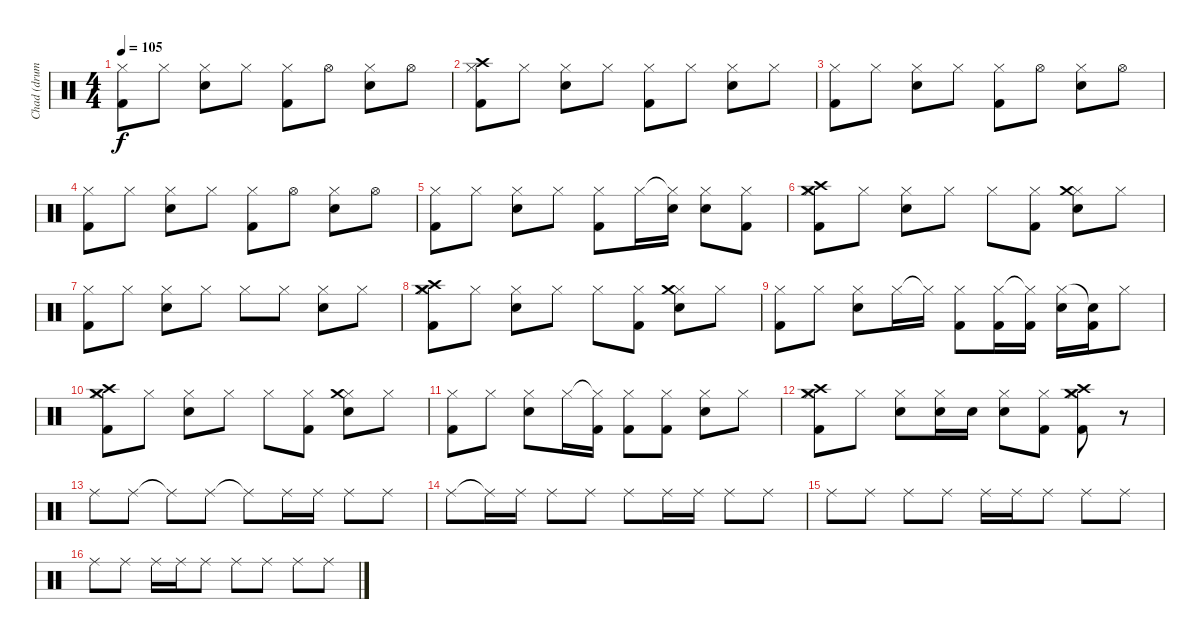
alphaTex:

\track ("Chad (drums)" "Chad (drum") {instrument percussion}
\staff {score}
\articulation defaults
\ts (4 4)
\tempo 105
\clef neutral
\ks c
("Hi-Hat (closed)" "Kick (hit) 2").8{dy f} "Hi-Hat (closed)".8 ("Hi-Hat (closed)" "Electric Snare (hit)").8 "Hi-Hat (closed)".8 ("Hi-Hat (closed)" "Kick (hit) 2").8 "Hi-Hat (open)".8 ("Hi-Hat (closed)" "Electric Snare (hit)").8 "Hi-Hat (open)".8 |
("Hi-Hat (closed)" "Kick (hit) 2" "Crash high (hit)").8 "Hi-Hat (closed)".8 ("Hi-Hat (closed)" "Electric Snare (hit)").8 "Hi-Hat (closed)".8 ("Hi-Hat (closed)" "Kick (hit) 2").8 "Hi-Hat (closed)".8 ("Hi-Hat (closed)" "Electric Snare (hit)").8 "Hi-Hat (closed)".8 |
("Hi-Hat (closed)" "Kick (hit) 2").8 "Hi-Hat (closed)".8 ("Hi-Hat (closed)" "Electric Snare (hit)").8 "Hi-Hat (closed)".8 ("Hi-Hat (closed)" "Kick (hit) 2").8 "Hi-Hat (open)".8 ("Hi-Hat (closed)" "Electric Snare (hit)").8 "Hi-Hat (open)".8 |
("Hi-Hat (closed)" "Kick (hit) 2").8 "Hi-Hat (closed)".8 ("Hi-Hat (closed)" "Electric Snare (hit)").8 "Hi-Hat (closed)".8 ("Hi-Hat (closed)" "Kick (hit) 2").8 "Hi-Hat (open)".8 ("Hi-Hat (closed)" "Electric Snare (hit)").8 "Hi-Hat (open)".8 |
("Hi-Hat (closed)" "Kick (hit) 2").8 "Hi-Hat (closed)".8 ("Hi-Hat (closed)" "Electric Snare (hit)").8 "Hi-Hat (closed)".8 ("Hi-Hat (closed)" "Kick (hit) 2").8 "Hi-Hat (closed)".16 ("Hi-Hat (closed)"{t} "Electric Snare (hit)").16 ("Hi-Hat (closed)" "Electric Snare (hit)").8 ("Hi-Hat (closed)" "Kick (hit) 2").8 |
("Hi-Hat (closed)" "Kick (hit) 2" "Crash high (hit)" "Crash medium (hit)").8 "Hi-Hat (closed)".8 ("Hi-Hat (closed)" "Electric Snare (hit)").8 "Hi-Hat (closed)".8 "Hi-Hat (closed)".8 ("Hi-Hat (closed)" "Kick (hit) 2").8 ("Hi-Hat (closed)" "Electric Snare (hit)" "Crash medium (hit)").8 "Hi-Hat (closed)".8 |
("Hi-Hat (closed)" "Kick (hit) 2").8 "Hi-Hat (closed)".8 ("Hi-Hat (closed)" "Electric Snare (hit)").8 "Hi-Hat (closed)".8 "Hi-Hat (closed)".8 "Hi-Hat (closed)".8 ("Hi-Hat (closed)" "Electric Snare (hit)").8 "Hi-Hat (closed)".8 |
("Hi-Hat (closed)" "Kick (hit) 2" "Crash high (hit)" "Crash medium (hit)").8 "Hi-Hat (closed)".8 ("Hi-Hat (closed)" "Electric Snare (hit)").8 "Hi-Hat (closed)".8 "Hi-Hat (closed)".8 ("Hi-Hat (closed)" "Kick (hit) 2").8 ("Hi-Hat (closed)" "Electric Snare (hit)" "Crash medium (hit)").8 "Hi-Hat (closed)".8 |
("Hi-Hat (closed)" "Kick (hit) 2").8 "Hi-Hat (closed)".8 ("Hi-Hat (closed)" "Electric Snare (hit)").8 "Hi-Hat (closed)".16 "Hi-Hat (closed)"{t}.16 ("Hi-Hat (closed)" "Kick (hit) 2").8 ("Hi-Hat (closed)" "Kick (hit) 2").16 ("Hi-Hat (closed)"{t} "Kick (hit) 2").16 ("Hi-Hat (closed)" "Electric Snare (hit)").16 ("Snare (hit)"{t} "Kick (hit) 2").16 "Hi-Hat (closed)".8 |
("Hi-Hat (closed)" "Kick (hit) 2" "Crash high (hit)" "Crash medium (hit)").8 "Hi-Hat (closed)".8 ("Hi-Hat (closed)" "Electric Snare (hit)").8 "Hi-Hat (closed)".8 "Hi-Hat (closed)".8 ("Hi-Hat (closed)" "Kick (hit) 2").8 ("Hi-Hat (closed)" "Electric Snare (hit)" "Crash medium (hit)").8 "Hi-Hat (closed)".8 |
("Hi-Hat (closed)" "Kick (hit) 2").8 "Hi-Hat (closed)".8 ("Hi-Hat (closed)" "Electric Snare (hit)").8 "Hi-Hat (closed)".16 ("Hi-Hat (closed)"{t} "Kick (hit) 2").16 ("Hi-Hat (closed)" "Kick (hit) 2").8 ("Hi-Hat (closed)" "Kick (hit) 2").8 ("Hi-Hat (closed)" "Electric Snare (hit)").8 "Hi-Hat (closed)".8 |
("Hi-Hat (closed)" "Kick (hit) 2" "Crash high (hit)" "Crash medium (hit)").8 "Hi-Hat (closed)".8 ("Hi-Hat (closed)" "Electric Snare (hit)").8 ("Hi-Hat (closed)" "Electric Snare (hit)").16 "Electric Snare (hit)".16 ("Hi-Hat (closed)" "Electric Snare (hit)").8 ("Hi-Hat (closed)" "Kick (hit) 2").8 ("Hi-Hat (closed)" "Kick (hit) 2" "Crash medium (hit)" "Crash high (hit)").8 r.8 |
"Ride (middle)".8 "Ride (middle)".8 "Ride (middle)"{t}.8 "Ride (middle)".8 "Ride (middle)"{t}.8 "Ride (middle)".16 "Ride (middle)".16 "Ride (middle)".8 "Ride (middle)".8 |
"Ride (middle)".8 "Ride (middle)"{t}.16 "Ride (middle)".16 "Ride (middle)".8 "Ride (middle)".8 "Ride (middle)".8 "Ride (middle)".16 "Ride (middle)".16 "Ride (middle)".8 "Ride (middle)".8 |
"Ride (middle)".8 "Ride (middle)".8 "Ride (middle)".8 "Ride (middle)".8 "Ride (middle)".16 "Ride (middle)".16 "Ride (middle)".8 "Ride (middle)".8 "Ride (middle)".8 |
"Ride (middle)".8 "Ride (middle)".8 "Ride (middle)".16 "Ride (middle)".16 "Ride (middle)".8 "Ride (middle)".8 "Ride (middle)".8 "Ride (middle)".8 "Ride (middle)".8
